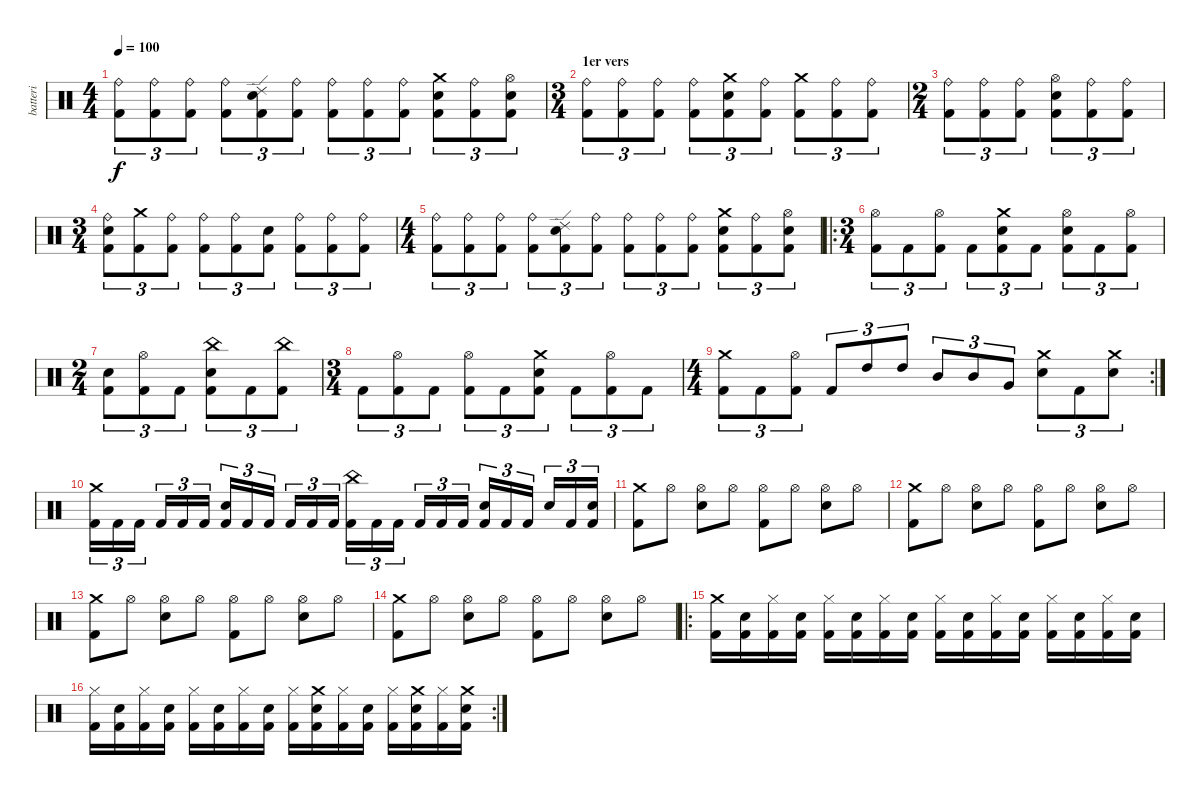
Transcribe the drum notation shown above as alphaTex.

\track ("batteri" "batteri") {instrument percussion}
\staff {score}
\articulation defaults
\ts (4 4)
\tempo 100
\clef neutral
\ks c
("Ride (bell)" "Kick (hit) 2").8{tu (3 2) dy f} ("Ride (bell)" "Kick (hit) 2").8{tu (3 2)} ("Ride (bell)" "Kick (hit) 2").8{tu (3 2)} ("Ride (bell)" "Kick (hit) 2").8{tu (3 2)} ("Ride (edge) 2" "Electric Snare (hit)" "Kick (hit) 2").8{tu (3 2)} ("Ride (bell)" "Kick (hit) 2").8{tu (3 2)} ("Ride (bell)" "Kick (hit) 2").8{tu (3 2)} ("Ride (bell)" "Kick (hit) 2").8{tu (3 2)} ("Ride (bell)" "Kick (hit) 2").8{tu (3 2)} ("Crash medium (hit)" "Electric Snare (hit)" "Kick (hit) 2").8{tu (3 2)} ("Ride (bell)" "Kick (hit) 2").8{tu (3 2)} ("Hi-Hat (open)" "Electric Snare (hit)" "Kick (hit) 2").8{tu (3 2)} |
\ts (3 4)
\section ("" "1er vers")
("Ride (bell)" "Kick (hit) 2").8{tu (3 2)} ("Ride (bell)" "Kick (hit) 2").8{tu (3 2)} ("Ride (bell)" "Kick (hit) 2").8{tu (3 2)} ("Ride (bell)" "Kick (hit) 2").8{tu (3 2)} ("Crash medium (hit)" "Electric Snare (hit)" "Kick (hit) 2").8{tu (3 2)} ("Ride (bell)" "Kick (hit) 2").8{tu (3 2)} ("Crash medium (hit)" "Kick (hit) 2").8{tu (3 2)} ("Ride (bell)" "Kick (hit) 2").8{tu (3 2)} ("Ride (bell)" "Kick (hit) 2").8{tu (3 2)} |
\ts (2 4)
("Ride (bell)" "Kick (hit) 2").8{tu (3 2)} ("Ride (bell)" "Kick (hit) 2").8{tu (3 2)} ("Ride (bell)" "Kick (hit) 2").8{tu (3 2)} ("Hi-Hat (open)" "Electric Snare (hit)" "Kick (hit) 2").8{tu (3 2)} ("Ride (bell)" "Kick (hit) 2").8{tu (3 2)} ("Ride (bell)" "Kick (hit) 2").8{tu (3 2)} |
\ts (3 4)
("Electric Snare (hit)" "Ride (bell)" "Kick (hit) 2").8{tu (3 2)} ("Crash medium (hit)" "Kick (hit) 2").8{tu (3 2)} ("Ride (bell)" "Kick (hit) 2").8{tu (3 2)} ("Ride (bell)" "Kick (hit) 2").8{tu (3 2)} ("Ride (bell)" "Kick (hit) 2").8{tu (3 2)} ("Electric Snare (hit)" "Kick (hit) 2").8{tu (3 2)} ("Ride (bell)" "Kick (hit) 2").8{tu (3 2)} ("Ride (bell)" "Kick (hit) 2").8{tu (3 2)} ("Ride (bell)" "Kick (hit) 2").8{tu (3 2)} |
\ts (4 4)
("Ride (bell)" "Kick (hit) 2").8{tu (3 2)} ("Ride (bell)" "Kick (hit) 2").8{tu (3 2)} ("Ride (bell)" "Kick (hit) 2").8{tu (3 2)} ("Ride (bell)" "Kick (hit) 2").8{tu (3 2)} ("Ride (edge) 2" "Electric Snare (hit)" "Kick (hit) 2").8{tu (3 2)} ("Ride (bell)" "Kick (hit) 2").8{tu (3 2)} ("Ride (bell)" "Kick (hit) 2").8{tu (3 2)} ("Ride (bell)" "Kick (hit) 2").8{tu (3 2)} ("Ride (bell)" "Kick (hit) 2").8{tu (3 2)} ("Crash medium (hit)" "Electric Snare (hit)" "Kick (hit) 2").8{tu (3 2)} ("Ride (bell)" "Kick (hit) 2").8{tu (3 2)} ("Hi-Hat (open)" "Electric Snare (hit)" "Kick (hit) 2").8{tu (3 2)} |
\ro
\ts (3 4)
("Hi-Hat (open)" "Kick (hit) 2").8{tu (3 2)} "Kick (hit) 2".8{tu (3 2)} ("Hi-Hat (open)" "Kick (hit) 2").8{tu (3 2)} "Kick (hit) 2".8{tu (3 2)} ("Crash medium (hit)" "Electric Snare (hit)" "Kick (hit) 2").8{tu (3 2)} "Kick (hit) 2".8{tu (3 2)} ("Snare (hit)" "Hi-Hat (open)" "Kick (hit) 2").8{tu (3 2)} "Kick (hit) 2".8{tu (3 2)} ("Hi-Hat (open)" "Kick (hit) 2").8{tu (3 2)} |
\ts (2 4)
("Snare (hit)" "Kick (hit) 2").8{tu (3 2)} ("Hi-Hat (open)" "Kick (hit) 2").8{tu (3 2)} "Kick (hit) 2".8{tu (3 2)} ("China (hit)" "Electric Snare (hit)" "Kick (hit) 2").8{tu (3 2)} "Kick (hit) 2".8{tu (3 2)} ("China (hit)" "Kick (hit) 2").8{tu (3 2)} |
\ts (3 4)
"Kick (hit) 2".8{tu (3 2)} ("Hi-Hat (open)" "Kick (hit) 2").8{tu (3 2)} "Kick (hit) 2".8{tu (3 2)} ("Hi-Hat (open)" "Kick (hit) 2").8{tu (3 2)} "Kick (hit) 2".8{tu (3 2)} ("Crash medium (hit)" "Electric Snare (hit)" "Kick (hit) 2").8{tu (3 2)} "Kick (hit) 2".8{tu (3 2)} ("Hi-Hat (open)" "Kick (hit) 2").8{tu (3 2)} "Kick (hit) 2".8{tu (3 2)} |
\rc 2
\ts (4 4)
("Crash medium (hit)" "Kick (hit) 2").8{tu (3 2)} "Kick (hit) 2".8{tu (3 2)} ("Hi-Hat (open)" "Kick (hit) 2").8{tu (3 2)} "Kick (hit) 2".8{tu (3 2)} "High Tom (hit)".8{tu (3 2)} "High Tom (hit)".8{tu (3 2)} "Mid Tom (hit)".8{tu (3 2)} "Mid Tom (hit)".8{tu (3 2)} "Very Low Tom (hit)".8{tu (3 2)} ("Crash medium (hit)" "Electric Snare (hit)").8{tu (3 2)} "Kick (hit) 2".8{tu (3 2)} ("Crash medium (hit)" "Electric Snare (hit)").8{tu (3 2)} |
("Crash medium (hit)" "Kick (hit) 2").16{tu (3 2)} "Kick (hit) 2".16{tu (3 2)} "Kick (hit) 2".16{tu (3 2)} "Kick (hit) 2".16{tu (3 2)} "Kick (hit) 2".16{tu (3 2)} "Kick (hit) 2".16{tu (3 2)} ("Electric Snare (hit)" "Kick (hit) 2").16{tu (3 2)} "Kick (hit) 2".16{tu (3 2)} "Kick (hit) 2".16{tu (3 2)} "Kick (hit) 2".16{tu (3 2)} "Kick (hit) 2".16{tu (3 2)} "Kick (hit) 2".16{tu (3 2)} ("China (hit)" "Kick (hit) 2").16{tu (3 2)} "Kick (hit) 2".16{tu (3 2)} "Kick (hit) 2".16{tu (3 2)} "Kick (hit) 2".16{tu (3 2)} "Kick (hit) 2".16{tu (3 2)} "Kick (hit) 2".16{tu (3 2)} ("Electric Snare (hit)" "Kick (hit) 2").16{tu (3 2)} "Kick (hit) 2".16{tu (3 2)} "Kick (hit) 2".16{tu (3 2)} "Electric Snare (hit)".16{tu (3 2)} "Kick (hit) 2".16{tu (3 2)} ("Electric Snare (hit)" "Kick (hit) 2").16{tu (3 2)} |
("Crash medium (hit)" "Kick (hit) 2").8 "Hi-Hat (open)".8 ("Hi-Hat (open)" "Electric Snare (hit)").8 "Hi-Hat (open)".8 ("Hi-Hat (open)" "Kick (hit) 2").8 "Hi-Hat (open)".8 ("Hi-Hat (open)" "Electric Snare (hit)").8 "Hi-Hat (open)".8 |
("Crash medium (hit)" "Kick (hit) 2").8 "Hi-Hat (open)".8 ("Hi-Hat (open)" "Electric Snare (hit)").8 "Hi-Hat (open)".8 ("Hi-Hat (open)" "Kick (hit) 2").8 "Hi-Hat (open)".8 ("Hi-Hat (open)" "Electric Snare (hit)").8 "Hi-Hat (open)".8 |
("Crash medium (hit)" "Kick (hit) 2").8 "Hi-Hat (open)".8 ("Hi-Hat (open)" "Electric Snare (hit)").8 "Hi-Hat (open)".8 ("Hi-Hat (open)" "Kick (hit) 2").8 "Hi-Hat (open)".8 ("Hi-Hat (open)" "Electric Snare (hit)").8 "Hi-Hat (open)".8 |
("Crash medium (hit)" "Kick (hit) 2").8 "Hi-Hat (open)".8 ("Hi-Hat (open)" "Electric Snare (hit)").8 "Hi-Hat (open)".8 ("Hi-Hat (open)" "Kick (hit) 2").8 "Hi-Hat (open)".8 ("Hi-Hat (open)" "Electric Snare (hit)").8 "Hi-Hat (open)".8 |
\ro
("Crash medium (hit)" "Kick (hit) 2").16 ("Electric Snare (hit)" "Kick (hit) 2").16 ("Hi-Hat (closed)" "Kick (hit) 2").16 ("Electric Snare (hit)" "Kick (hit) 2").16 ("Hi-Hat (closed)" "Kick (hit) 2").16 ("Electric Snare (hit)" "Kick (hit) 2").16 ("Hi-Hat (closed)" "Kick (hit) 2").16 ("Electric Snare (hit)" "Kick (hit) 2").16 ("Hi-Hat (closed)" "Kick (hit) 2").16 ("Electric Snare (hit)" "Kick (hit) 2").16 ("Hi-Hat (closed)" "Kick (hit) 2").16 ("Electric Snare (hit)" "Kick (hit) 2").16 ("Hi-Hat (closed)" "Kick (hit) 2").16 ("Electric Snare (hit)" "Kick (hit) 2").16 ("Hi-Hat (closed)" "Kick (hit) 2").16 ("Electric Snare (hit)" "Kick (hit) 2").16 |
\rc 2
("Hi-Hat (closed)" "Kick (hit) 2").16 ("Electric Snare (hit)" "Kick (hit) 2").16 ("Hi-Hat (closed)" "Kick (hit) 2").16 ("Electric Snare (hit)" "Kick (hit) 2").16 ("Hi-Hat (closed)" "Kick (hit) 2").16 ("Electric Snare (hit)" "Kick (hit) 2").16 ("Hi-Hat (closed)" "Kick (hit) 2").16 ("Electric Snare (hit)" "Kick (hit) 2").16 ("Hi-Hat (closed)" "Kick (hit) 2").16 ("Crash medium (hit)" "Electric Snare (hit)" "Kick (hit) 2").16 ("Hi-Hat (closed)" "Kick (hit) 2").16 ("Electric Snare (hit)" "Kick (hit) 2").16 ("Hi-Hat (closed)" "Kick (hit) 2").16 ("Crash medium (hit)" "Electric Snare (hit)" "Kick (hit) 2").16 ("Hi-Hat (closed)" "Kick (hit) 2").16 ("Crash medium (hit)" "Electric Snare (hit)" "Kick (hit) 2").16
